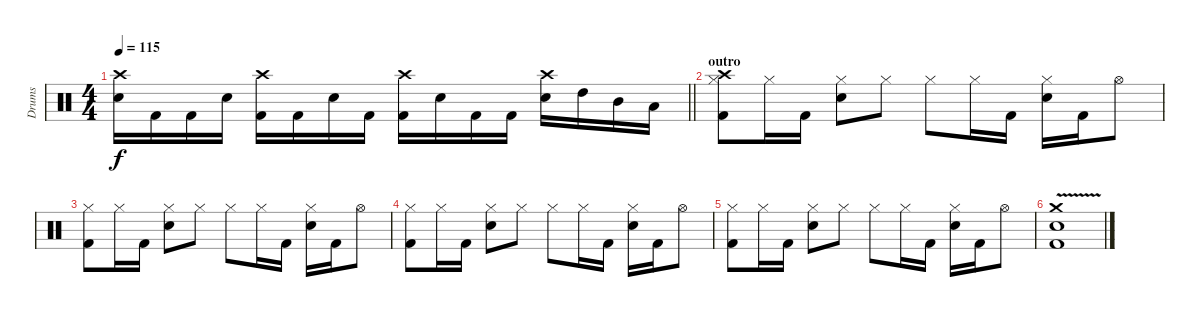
\track ("Drums" "Drums") {instrument percussion}
\staff {score}
\articulation defaults
\ts (4 4)
\tempo 115
\clef neutral
\barLineRight lightlight
\ks c
("Crash high (hit)" "Snare (hit) 2").16{dy f} "Kick (hit) 2".16 "Kick (hit) 2".16 "Snare (hit) 2".16 ("Crash high (hit)" "Kick (hit) 2").16 "Kick (hit) 2".16 "Snare (hit) 2".16 "Kick (hit) 2".16 ("Crash high (hit)" "Kick (hit) 2").16 "Snare (hit) 2".16 "Kick (hit) 2".16 "Kick (hit) 2".16 ("Crash high (hit)" "Snare (hit) 2").16 "High Tom (hit)".16 "Mid Tom (hit)".16 "Low Tom (hit)".16 |
\section ("" "outro")
("Crash high (hit)" "Hi-Hat (closed)" "Kick (hit) 2").8 "Hi-Hat (closed)".16 "Kick (hit) 2".16 ("Hi-Hat (closed)" "Snare (hit) 2").8 "Hi-Hat (closed)".8 "Hi-Hat (closed)".8 "Hi-Hat (closed)".16 "Kick (hit) 2".16 ("Hi-Hat (closed)" "Snare (hit) 2").16 "Kick (hit) 2".16 "Hi-Hat (open)".8 |
("Hi-Hat (closed)" "Kick (hit) 2").8 "Hi-Hat (closed)".16 "Kick (hit) 2".16 ("Hi-Hat (closed)" "Snare (hit) 2").8 "Hi-Hat (closed)".8 "Hi-Hat (closed)".8 "Hi-Hat (closed)".16 "Kick (hit) 2".16 ("Hi-Hat (closed)" "Snare (hit) 2").16 "Kick (hit) 2".16 "Hi-Hat (open)".8 |
("Hi-Hat (closed)" "Kick (hit) 2").8 "Hi-Hat (closed)".16 "Kick (hit) 2".16 ("Hi-Hat (closed)" "Snare (hit) 2").8 "Hi-Hat (closed)".8 "Hi-Hat (closed)".8 "Hi-Hat (closed)".16 "Kick (hit) 2".16 ("Hi-Hat (closed)" "Snare (hit) 2").16 "Kick (hit) 2".16 "Hi-Hat (open)".8 |
("Hi-Hat (closed)" "Kick (hit) 2").8 "Hi-Hat (closed)".16 "Kick (hit) 2".16 ("Hi-Hat (closed)" "Snare (hit) 2").8 "Hi-Hat (closed)".8 "Hi-Hat (closed)".8 "Hi-Hat (closed)".16 "Kick (hit) 2".16 ("Hi-Hat (closed)" "Snare (hit) 2").16 "Kick (hit) 2".16 "Hi-Hat (open)".8 |
("Crash medium (hit)"{v} "Snare (hit) 2" "Kick (hit) 2").1
